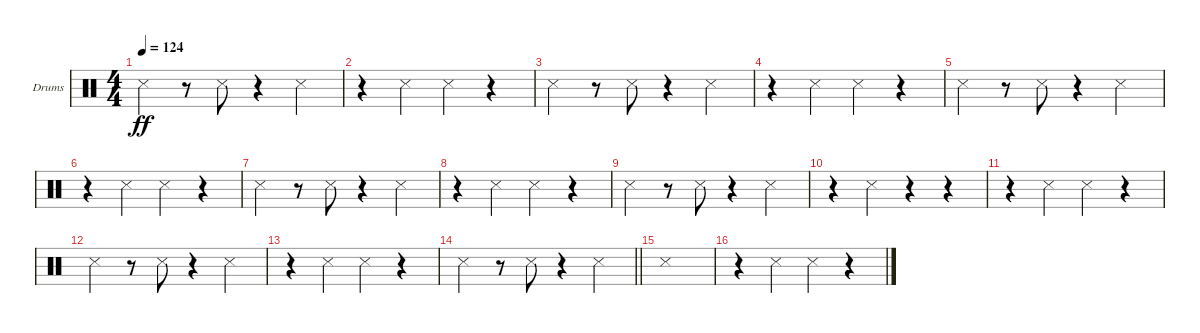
\bracketExtendMode groupsimilarinstruments
\firstSystemTrackNameOrientation horizontal
\otherSystemsTrackNameOrientation horizontal
\track ("Sidestick Clave Pattern" "Drums") {instrument percussion}
\staff {score}
\articulation defaults
\ts (4 4)
\tempo 124
\clef neutral
\scale
0.333333
\ks c "Snare (side stick) 3".4{dy ff}
r.8 "Snare (side stick) 3".8 r.4 "Snare (side stick) 3".4 |
\scale
0.333333 r.4 "Snare (side stick) 3".4 "Snare (side stick) 3".4 r.4 |
\scale
0.333333 "Snare (side stick) 3".4 r.8 "Snare (side stick) 3".8 r.4 "Snare (side stick) 3".4 |
\scale
0.333333 r.4 "Snare (side stick) 3".4 "Snare (side stick) 3".4 r.4 |
\scale
0.333333 "Snare (side stick) 3".4 r.8 "Snare (side stick) 3".8 r.4 "Snare (side stick) 3".4 |
\scale
0.333333 r.4 "Snare (side stick) 3".4 "Snare (side stick) 3".4 r.4 |
\scale
0.333333 "Snare (side stick) 3".4 r.8 "Snare (side stick) 3".8 r.4 "Snare (side stick) 3".4 |
\scale
0.333333 r.4 "Snare (side stick) 3".4 "Snare (side stick) 3".4 r.4 |
\scale
0.333333 "Snare (side stick) 3".4 r.8 "Snare (side stick) 3".8 r.4 "Snare (side stick) 3".4 |
\scale
0.333333 r.4 "Snare (side stick) 3".4 r.4 r.4 |
\scale
0.333333 r.4 "Snare (side stick) 3".4 "Snare (side stick) 3".4 r.4 |
\scale
0.333333 "Snare (side stick) 3".4 r.8 "Snare (side stick) 3".8 r.4 "Snare (side stick) 3".4 |
\scale
0.333333 r.4 "Snare (side stick) 3".4 "Snare (side stick) 3".4 r.4 |
\scale
0.333333
\barLineRight lightlight "Snare (side stick) 3".4
r.8 "Snare (side stick) 3".8 r.4 "Snare (side stick) 3".4 |
\scale
0.333333 "Snare (side stick) 3".1 |
\scale
0.333333 r.4 "Snare (side stick) 3".4 "Snare (side stick) 3".4 r.4
